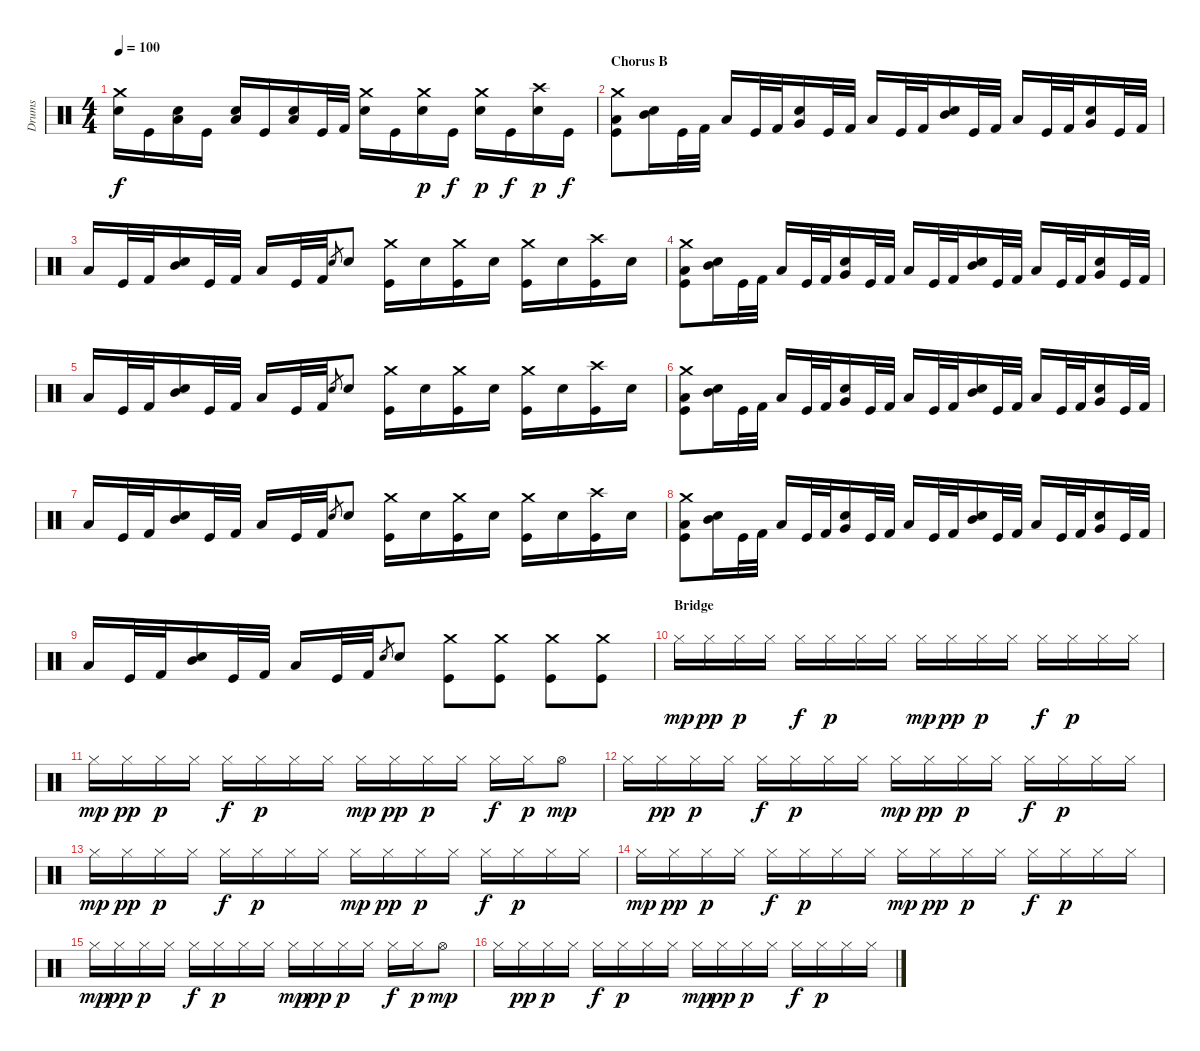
\track ("Drums" "Drums") {instrument percussion}
\staff {score}
\articulation defaults
\ts (4 4)
\tempo 100
\clef neutral
\ks c
("Crash medium (hit)" "Electric Snare (hit)").16{dy f} "Kick (hit)".16 ("Electric Snare (hit)" "Low Tom (hit)").16 "Kick (hit)".16 ("Electric Snare (hit)" "Low Tom (hit)").16 "Kick (hit)".16 ("Electric Snare (hit)" "Low Tom (hit)").16 "Kick (hit)".32 "Kick (hit) 2".32 ("Crash medium (hit)" "Electric Snare (hit)").16 "Kick (hit)".16 ("Crash medium (hit)" "Electric Snare (hit)").16{dy p} "Kick (hit)".16{dy f} ("Crash medium (hit)" "Electric Snare (hit)").16{dy p} "Kick (hit)".16{dy f} ("Crash high (hit)" "Electric Snare (hit)").16{dy p} "Kick (hit)".16{dy f} |
\section ("" "Chorus B")
("Crash medium (hit)" "Low Floor Tom (hit)" "Kick (hit)").8 ("Electric Snare (hit)" "Mid Tom (hit)").16 "Kick (hit)".32 "Kick (hit) 2".32 "Low Tom (hit)".16 "Kick (hit)".32 "Kick (hit) 2".32 ("Electric Snare (hit)" "Very Low Tom (hit)").16 "Kick (hit)".32 "Kick (hit) 2".32 "Low Floor Tom (hit)".16 "Kick (hit)".32 "Kick (hit) 2".32 ("Electric Snare (hit)" "Mid Tom (hit)").16 "Kick (hit)".32 "Kick (hit) 2".32 "Low Tom (hit)".16 "Kick (hit)".32 "Kick (hit) 2".32 ("Electric Snare (hit)" "Very Low Tom (hit)").16 "Kick (hit)".32 "Kick (hit) 2".32 |
"Low Floor Tom (hit)".16 "Kick (hit)".32 "Kick (hit) 2".32 ("Electric Snare (hit)" "Mid Tom (hit)").16 "Kick (hit)".32 "Kick (hit) 2".32 "Low Tom (hit)".16 "Kick (hit)".32 "Kick (hit) 2".32 "Electric Snare (hit)".8{gr} "Electric Snare (hit)".8 ("Crash medium (hit)" "Kick (hit)").16 "Electric Snare (hit)".16 ("Crash medium (hit)" "Kick (hit)").16 "Electric Snare (hit)".16 ("Crash medium (hit)" "Kick (hit)").16 "Electric Snare (hit)".16 ("Crash high (hit)" "Kick (hit)").16 "Electric Snare (hit)".16 |
("Crash medium (hit)" "Low Floor Tom (hit)" "Kick (hit)").8 ("Electric Snare (hit)" "Mid Tom (hit)").16 "Kick (hit)".32 "Kick (hit) 2".32 "Low Tom (hit)".16 "Kick (hit)".32 "Kick (hit) 2".32 ("Electric Snare (hit)" "Very Low Tom (hit)").16 "Kick (hit)".32 "Kick (hit) 2".32 "Low Floor Tom (hit)".16 "Kick (hit)".32 "Kick (hit) 2".32 ("Electric Snare (hit)" "Mid Tom (hit)").16 "Kick (hit)".32 "Kick (hit) 2".32 "Low Tom (hit)".16 "Kick (hit)".32 "Kick (hit) 2".32 ("Electric Snare (hit)" "Very Low Tom (hit)").16 "Kick (hit)".32 "Kick (hit) 2".32 |
"Low Floor Tom (hit)".16 "Kick (hit)".32 "Kick (hit) 2".32 ("Electric Snare (hit)" "Mid Tom (hit)").16 "Kick (hit)".32 "Kick (hit) 2".32 "Low Tom (hit)".16 "Kick (hit)".32 "Kick (hit) 2".32 "Electric Snare (hit)".8{gr} "Electric Snare (hit)".8 ("Crash medium (hit)" "Kick (hit)").16 "Electric Snare (hit)".16 ("Crash medium (hit)" "Kick (hit)").16 "Electric Snare (hit)".16 ("Crash medium (hit)" "Kick (hit)").16 "Electric Snare (hit)".16 ("Crash high (hit)" "Kick (hit)").16 "Electric Snare (hit)".16 |
("Crash medium (hit)" "Low Floor Tom (hit)" "Kick (hit)").8 ("Electric Snare (hit)" "Mid Tom (hit)").16 "Kick (hit)".32 "Kick (hit) 2".32 "Low Tom (hit)".16 "Kick (hit)".32 "Kick (hit) 2".32 ("Electric Snare (hit)" "Very Low Tom (hit)").16 "Kick (hit)".32 "Kick (hit) 2".32 "Low Floor Tom (hit)".16 "Kick (hit)".32 "Kick (hit) 2".32 ("Electric Snare (hit)" "Mid Tom (hit)").16 "Kick (hit)".32 "Kick (hit) 2".32 "Low Tom (hit)".16 "Kick (hit)".32 "Kick (hit) 2".32 ("Electric Snare (hit)" "Very Low Tom (hit)").16 "Kick (hit)".32 "Kick (hit) 2".32 |
"Low Floor Tom (hit)".16 "Kick (hit)".32 "Kick (hit) 2".32 ("Electric Snare (hit)" "Mid Tom (hit)").16 "Kick (hit)".32 "Kick (hit) 2".32 "Low Tom (hit)".16 "Kick (hit)".32 "Kick (hit) 2".32 "Electric Snare (hit)".8{gr} "Electric Snare (hit)".8 ("Crash medium (hit)" "Kick (hit)").16 "Electric Snare (hit)".16 ("Crash medium (hit)" "Kick (hit)").16 "Electric Snare (hit)".16 ("Crash medium (hit)" "Kick (hit)").16 "Electric Snare (hit)".16 ("Crash high (hit)" "Kick (hit)").16 "Electric Snare (hit)".16 |
("Crash medium (hit)" "Low Floor Tom (hit)" "Kick (hit)").8 ("Electric Snare (hit)" "Mid Tom (hit)").16 "Kick (hit)".32 "Kick (hit) 2".32 "Low Tom (hit)".16 "Kick (hit)".32 "Kick (hit) 2".32 ("Electric Snare (hit)" "Very Low Tom (hit)").16 "Kick (hit)".32 "Kick (hit) 2".32 "Low Floor Tom (hit)".16 "Kick (hit)".32 "Kick (hit) 2".32 ("Electric Snare (hit)" "Mid Tom (hit)").16 "Kick (hit)".32 "Kick (hit) 2".32 "Low Tom (hit)".16 "Kick (hit)".32 "Kick (hit) 2".32 ("Electric Snare (hit)" "Very Low Tom (hit)").16 "Kick (hit)".32 "Kick (hit) 2".32 |
"Low Floor Tom (hit)".16 "Kick (hit)".32 "Kick (hit) 2".32 ("Electric Snare (hit)" "Mid Tom (hit)").16 "Kick (hit)".32 "Kick (hit) 2".32 "Low Tom (hit)".16 "Kick (hit)".32 "Kick (hit) 2".32 "Electric Snare (hit)".8{gr} "Electric Snare (hit)".8 ("Crash medium (hit)" "Kick (hit)").8 ("Crash medium (hit)" "Kick (hit)").8 ("Crash medium (hit)" "Kick (hit)").8 ("Crash medium (hit)" "Kick (hit)").8 |
\section ("" "Bridge")
"Hi-Hat (closed)".16{dy mp} "Hi-Hat (closed)".16{dy pp} "Hi-Hat (closed)".16{dy p} "Hi-Hat (closed)".16 "Hi-Hat (closed)".16{dy f} "Hi-Hat (closed)".16{dy p} "Hi-Hat (closed)".16 "Hi-Hat (closed)".16 "Hi-Hat (closed)".16{dy mp} "Hi-Hat (closed)".16{dy pp} "Hi-Hat (closed)".16{dy p} "Hi-Hat (closed)".16 "Hi-Hat (closed)".16{dy f} "Hi-Hat (closed)".16{dy p} "Hi-Hat (closed)".16 "Hi-Hat (closed)".16 |
"Hi-Hat (closed)".16{dy mp} "Hi-Hat (closed)".16{dy pp} "Hi-Hat (closed)".16{dy p} "Hi-Hat (closed)".16 "Hi-Hat (closed)".16{dy f} "Hi-Hat (closed)".16{dy p} "Hi-Hat (closed)".16 "Hi-Hat (closed)".16 "Hi-Hat (closed)".16{dy mp} "Hi-Hat (closed)".16{dy pp} "Hi-Hat (closed)".16{dy p} "Hi-Hat (closed)".16 "Hi-Hat (closed)".16{dy f} "Hi-Hat (closed)".16{dy p} "Hi-Hat (open)".8{dy mp} |
"Hi-Hat (closed)".16 "Hi-Hat (closed)".16{dy pp} "Hi-Hat (closed)".16{dy p} "Hi-Hat (closed)".16 "Hi-Hat (closed)".16{dy f} "Hi-Hat (closed)".16{dy p} "Hi-Hat (closed)".16 "Hi-Hat (closed)".16 "Hi-Hat (closed)".16{dy mp} "Hi-Hat (closed)".16{dy pp} "Hi-Hat (closed)".16{dy p} "Hi-Hat (closed)".16 "Hi-Hat (closed)".16{dy f} "Hi-Hat (closed)".16{dy p} "Hi-Hat (closed)".16 "Hi-Hat (closed)".16 |
"Hi-Hat (closed)".16{dy mp} "Hi-Hat (closed)".16{dy pp} "Hi-Hat (closed)".16{dy p} "Hi-Hat (closed)".16 "Hi-Hat (closed)".16{dy f} "Hi-Hat (closed)".16{dy p} "Hi-Hat (closed)".16 "Hi-Hat (closed)".16 "Hi-Hat (closed)".16{dy mp} "Hi-Hat (closed)".16{dy pp} "Hi-Hat (closed)".16{dy p} "Hi-Hat (closed)".16 "Hi-Hat (closed)".16{dy f} "Hi-Hat (closed)".16{dy p} "Hi-Hat (closed)".16 "Hi-Hat (closed)".16 |
"Hi-Hat (closed)".16{dy mp} "Hi-Hat (closed)".16{dy pp} "Hi-Hat (closed)".16{dy p} "Hi-Hat (closed)".16 "Hi-Hat (closed)".16{dy f} "Hi-Hat (closed)".16{dy p} "Hi-Hat (closed)".16 "Hi-Hat (closed)".16 "Hi-Hat (closed)".16{dy mp} "Hi-Hat (closed)".16{dy pp} "Hi-Hat (closed)".16{dy p} "Hi-Hat (closed)".16 "Hi-Hat (closed)".16{dy f} "Hi-Hat (closed)".16{dy p} "Hi-Hat (closed)".16 "Hi-Hat (closed)".16 |
"Hi-Hat (closed)".16{dy mp} "Hi-Hat (closed)".16{dy pp} "Hi-Hat (closed)".16{dy p} "Hi-Hat (closed)".16 "Hi-Hat (closed)".16{dy f} "Hi-Hat (closed)".16{dy p} "Hi-Hat (closed)".16 "Hi-Hat (closed)".16 "Hi-Hat (closed)".16{dy mp} "Hi-Hat (closed)".16{dy pp} "Hi-Hat (closed)".16{dy p} "Hi-Hat (closed)".16 "Hi-Hat (closed)".16{dy f} "Hi-Hat (closed)".16{dy p} "Hi-Hat (open)".8{dy mp} |
"Hi-Hat (closed)".16 "Hi-Hat (closed)".16{dy pp} "Hi-Hat (closed)".16{dy p} "Hi-Hat (closed)".16 "Hi-Hat (closed)".16{dy f} "Hi-Hat (closed)".16{dy p} "Hi-Hat (closed)".16 "Hi-Hat (closed)".16 "Hi-Hat (closed)".16{dy mp} "Hi-Hat (closed)".16{dy pp} "Hi-Hat (closed)".16{dy p} "Hi-Hat (closed)".16 "Hi-Hat (closed)".16{dy f} "Hi-Hat (closed)".16{dy p} "Hi-Hat (closed)".16 "Hi-Hat (closed)".16
